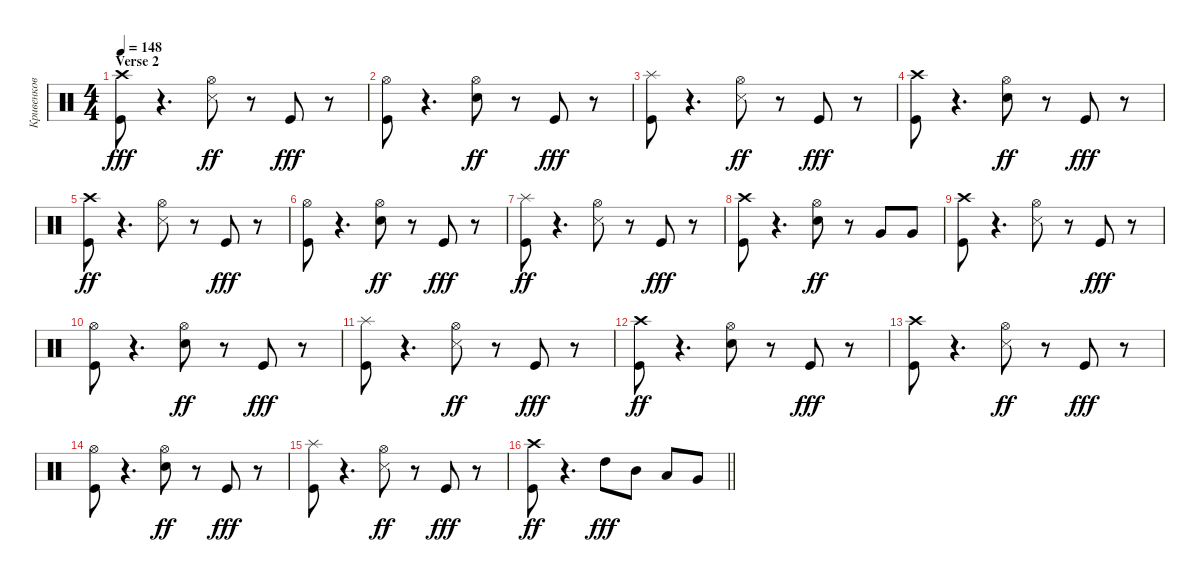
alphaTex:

\track ("Кривенков" "Кривенков") {instrument percussion}
\staff {score}
\articulation defaults
\ts (4 4)
\section ("" "Verse 2")
\tempo 148
\clef neutral
\ks c
("Crash high (hit)" "Kick (hit)").8{dy fff} r.4{d} ("Hi-Hat (open)" "Snare (side stick) 3").8{dy ff} r.8 "Kick (hit)".8{dy fff} r.8 |
("Hi-Hat (open)" "Kick (hit)").8 r.4{d} ("Hi-Hat (open)" "Snare (hit) 2").8{dy ff} r.8 "Kick (hit)".8{dy fff} r.8 |
("Splash (hit)" "Kick (hit)").8 r.4{d} ("Hi-Hat (open)" "Snare (side stick) 3").8{dy ff} r.8 "Kick (hit)".8{dy fff} r.8 |
("Crash high (hit)" "Kick (hit)").8 r.4{d} ("Hi-Hat (open)" "Snare (hit) 2").8{dy ff} r.8 "Kick (hit)".8{dy fff} r.8 |
("Kick (hit)" "Crash high (hit)").8{dy ff} r.4{d} ("Snare (side stick) 3" "Hi-Hat (open)").8 r.8 "Kick (hit)".8{dy fff} r.8 |
("Hi-Hat (open)" "Kick (hit)").8 r.4{d} ("Hi-Hat (open)" "Snare (hit) 2").8{dy ff} r.8 "Kick (hit)".8{dy fff} r.8 |
("Kick (hit)" "Splash (hit)").8{dy ff} r.4{d} ("Snare (side stick) 3" "Hi-Hat (open)").8 r.8 "Kick (hit)".8{dy fff} r.8 |
("Crash high (hit)" "Kick (hit)").8 r.4{d} ("Snare (hit) 2" "Hi-Hat (open)").8{dy ff} r.8 "Very Low Tom (hit)".8 "Very Low Tom (hit)".8 |
("Kick (hit)" "Crash high (hit)").8 r.4{d} ("Snare (side stick) 3" "Hi-Hat (open)").8 r.8 "Kick (hit)".8{dy fff} r.8 |
("Hi-Hat (open)" "Kick (hit)").8 r.4{d} ("Hi-Hat (open)" "Snare (hit) 2").8{dy ff} r.8 "Kick (hit)".8{dy fff} r.8 |
("Splash (hit)" "Kick (hit)").8 r.4{d} ("Hi-Hat (open)" "Snare (side stick) 3").8{dy ff} r.8 "Kick (hit)".8{dy fff} r.8 |
("Kick (hit)" "Crash high (hit)").8{dy ff} r.4{d} ("Hi-Hat (open)" "Snare (hit) 2").8 r.8 "Kick (hit)".8{dy fff} r.8 |
("Crash high (hit)" "Kick (hit)").8 r.4{d} ("Snare (side stick) 3" "Hi-Hat (open)").8{dy ff} r.8 "Kick (hit)".8{dy fff} r.8 |
("Hi-Hat (open)" "Kick (hit)").8 r.4{d} ("Hi-Hat (open)" "Snare (hit) 2").8{dy ff} r.8 "Kick (hit)".8{dy fff} r.8 |
("Splash (hit)" "Kick (hit)").8 r.4{d} ("Snare (side stick) 3" "Hi-Hat (open)").8{dy ff} r.8 "Kick (hit)".8{dy fff} r.8 |
\barLineRight lightlight
("Kick (hit)" "Crash high (hit)").8{dy ff} r.4{d} "High Tom (hit)".8{dy fff} "Mid Tom (hit)".8 "Low Tom (hit)".8 "Very Low Tom (hit)".8
